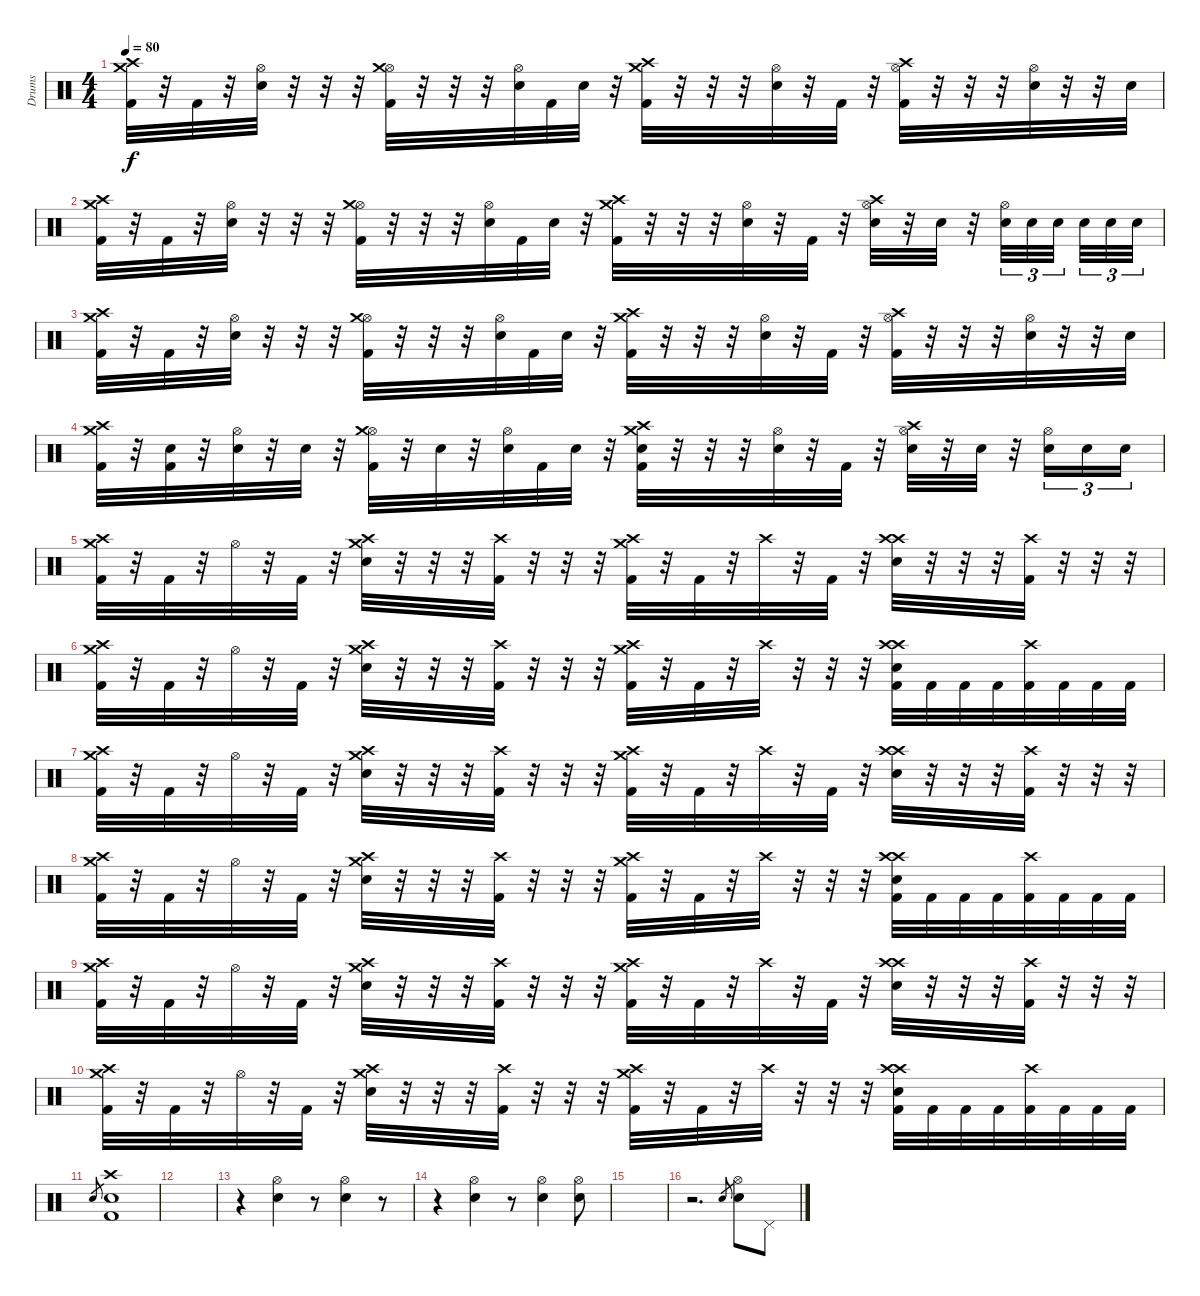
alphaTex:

\track ("Drums" "Drums") {instrument percussion}
\staff {score}
\articulation defaults
\ts (4 4)
\tempo 80
\clef neutral
\ks c
("Crash high (hit)" "Crash medium (hit)" "Kick (hit) 2").32{dy f volume 15} r.32 "Kick (hit) 2".32 r.32 ("Hi-Hat (open)" "Electric Snare (hit)").32 r.32 r.32 r.32 ("Hi-Hat (open)" "Crash medium (hit)" "Kick (hit) 2").32 r.32 r.32 r.32 ("Hi-Hat (open)" "Electric Snare (hit)").32 "Kick (hit) 2".32 "Electric Snare (hit)".32 r.32 ("Crash high (hit)" "Crash medium (hit)" "Kick (hit) 2").32 r.32 r.32 r.32 ("Hi-Hat (open)" "Electric Snare (hit)").32 r.32 "Kick (hit) 2".32 r.32 ("Crash high (hit)" "Hi-Hat (open)" "Kick (hit) 2").32 r.32 r.32 r.32 ("Hi-Hat (open)" "Electric Snare (hit)").32 r.32 r.32 "Electric Snare (hit)".32 |
("Crash high (hit)" "Crash medium (hit)" "Kick (hit) 2").32{volume 15} r.32 "Kick (hit) 2".32 r.32 ("Hi-Hat (open)" "Electric Snare (hit)").32 r.32 r.32 r.32 ("Hi-Hat (open)" "Crash medium (hit)" "Kick (hit) 2").32 r.32 r.32 r.32 ("Hi-Hat (open)" "Electric Snare (hit)").32 "Kick (hit) 2".32 "Electric Snare (hit)".32 r.32 ("Crash high (hit)" "Crash medium (hit)" "Kick (hit) 2").32 r.32 r.32 r.32 ("Hi-Hat (open)" "Electric Snare (hit)").32 r.32 "Kick (hit) 2".32 r.32 ("Crash high (hit)" "Hi-Hat (open)" "Electric Snare (hit)").32 r.32 "Electric Snare (hit)".32 r.32 ("Hi-Hat (open)" "Electric Snare (hit)").32{tu (3 2)} "Electric Snare (hit)".32{tu (3 2)} "Electric Snare (hit)".32{tu (3 2)} "Electric Snare (hit)".32{tu (3 2)} "Electric Snare (hit)".32{tu (3 2)} "Electric Snare (hit)".32{tu (3 2)} |
("Crash high (hit)" "Crash medium (hit)" "Kick (hit) 2").32{volume 15} r.32 "Kick (hit) 2".32 r.32 ("Hi-Hat (open)" "Electric Snare (hit)").32 r.32 r.32 r.32 ("Hi-Hat (open)" "Crash medium (hit)" "Kick (hit) 2").32 r.32 r.32 r.32 ("Hi-Hat (open)" "Electric Snare (hit)").32 "Kick (hit) 2".32 "Electric Snare (hit)".32 r.32 ("Crash high (hit)" "Crash medium (hit)" "Kick (hit) 2").32 r.32 r.32 r.32 ("Hi-Hat (open)" "Electric Snare (hit)").32 r.32 "Kick (hit) 2".32 r.32 ("Crash high (hit)" "Hi-Hat (open)" "Kick (hit) 2").32 r.32 r.32 r.32 ("Hi-Hat (open)" "Electric Snare (hit)").32 r.32 r.32 "Electric Snare (hit)".32 |
("Crash high (hit)" "Crash medium (hit)" "Kick (hit) 2").32{volume 15} r.32 ("Electric Snare (hit)" "Kick (hit) 2").32 r.32 ("Hi-Hat (open)" "Electric Snare (hit)").32 r.32 "Electric Snare (hit)".32 r.32 ("Hi-Hat (open)" "Crash medium (hit)" "Kick (hit) 2").32 r.32 "Electric Snare (hit)".32 r.32 ("Hi-Hat (open)" "Electric Snare (hit)").32 "Kick (hit) 2".32 "Electric Snare (hit)".32 r.32 ("Crash high (hit)" "Crash medium (hit)" "Electric Snare (hit)" "Kick (hit) 2").32 r.32 r.32 r.32 ("Hi-Hat (open)" "Electric Snare (hit)").32 r.32 "Kick (hit) 2".32 r.32 ("Crash high (hit)" "Hi-Hat (open)" "Electric Snare (hit)").32 r.32 "Electric Snare (hit)".32 r.32 ("Hi-Hat (open)" "Electric Snare (hit)").16{tu (3 2)} "Electric Snare (hit)".16{tu (3 2)} "Electric Snare (hit)".16{tu (3 2)} |
("Crash high (hit)" "Crash medium (hit)" "Kick (hit) 2").32{volume 15} r.32 "Kick (hit) 2".32 r.32 "Hi-Hat (open)".32 r.32 "Kick (hit) 2".32 r.32 ("Crash high (hit)" "Crash medium (hit)" "Electric Snare (hit)").32 r.32 r.32 r.32 ("Crash high (hit)" "Kick (hit) 2").32 r.32 r.32 r.32 ("Crash high (hit)" "Crash medium (hit)" "Kick (hit) 2").32 r.32 "Kick (hit) 2".32 r.32 "Crash high (hit)".32 r.32 "Kick (hit) 2".32 r.32 ("Crash high (hit)" "Crash high (hit)" "Electric Snare (hit)").32 r.32 r.32 r.32 ("Crash high (hit)" "Kick (hit) 2").32 r.32 r.32 r.32 |
("Crash high (hit)" "Crash medium (hit)" "Kick (hit) 2").32{volume 15} r.32 "Kick (hit) 2".32 r.32 "Hi-Hat (open)".32 r.32 "Kick (hit) 2".32 r.32 ("Crash high (hit)" "Crash medium (hit)" "Electric Snare (hit)").32 r.32 r.32 r.32 ("Crash high (hit)" "Kick (hit) 2").32 r.32 r.32 r.32 ("Crash high (hit)" "Crash medium (hit)" "Kick (hit) 2").32 r.32 "Kick (hit) 2".32 r.32 "Crash high (hit)".32 r.32 r.32 r.32 ("Crash high (hit)" "Crash high (hit)" "Electric Snare (hit)" "Kick (hit) 2").32 "Kick (hit) 2".32 "Kick (hit) 2".32 "Kick (hit) 2".32 ("Crash high (hit)" "Kick (hit) 2").32 "Kick (hit) 2".32 "Kick (hit) 2".32 "Kick (hit) 2".32 |
("Crash high (hit)" "Crash medium (hit)" "Kick (hit) 2").32{volume 15} r.32 "Kick (hit) 2".32 r.32 "Hi-Hat (open)".32 r.32 "Kick (hit) 2".32 r.32 ("Crash high (hit)" "Crash medium (hit)" "Electric Snare (hit)").32 r.32 r.32 r.32 ("Crash high (hit)" "Kick (hit) 2").32 r.32 r.32 r.32 ("Crash high (hit)" "Crash medium (hit)" "Kick (hit) 2").32 r.32 "Kick (hit) 2".32 r.32 "Crash high (hit)".32 r.32 "Kick (hit) 2".32 r.32 ("Crash high (hit)" "Crash high (hit)" "Electric Snare (hit)").32 r.32 r.32 r.32 ("Crash high (hit)" "Kick (hit) 2").32 r.32 r.32 r.32 |
("Crash high (hit)" "Crash medium (hit)" "Kick (hit) 2").32{volume 15} r.32 "Kick (hit) 2".32 r.32 "Hi-Hat (open)".32 r.32 "Kick (hit) 2".32 r.32 ("Crash high (hit)" "Crash medium (hit)" "Electric Snare (hit)").32 r.32 r.32 r.32 ("Crash high (hit)" "Kick (hit) 2").32 r.32 r.32 r.32 ("Crash high (hit)" "Crash medium (hit)" "Kick (hit) 2").32 r.32 "Kick (hit) 2".32 r.32 "Crash high (hit)".32 r.32 r.32 r.32 ("Crash high (hit)" "Crash high (hit)" "Electric Snare (hit)" "Kick (hit) 2").32 "Kick (hit) 2".32 "Kick (hit) 2".32 "Kick (hit) 2".32 ("Crash high (hit)" "Kick (hit) 2").32 "Kick (hit) 2".32 "Kick (hit) 2".32 "Kick (hit) 2".32 |
("Crash high (hit)" "Crash medium (hit)" "Kick (hit) 2").32{volume 15} r.32 "Kick (hit) 2".32 r.32 "Hi-Hat (open)".32 r.32 "Kick (hit) 2".32 r.32 ("Crash high (hit)" "Crash medium (hit)" "Electric Snare (hit)").32 r.32 r.32 r.32 ("Crash high (hit)" "Kick (hit) 2").32 r.32 r.32 r.32 ("Crash high (hit)" "Crash medium (hit)" "Kick (hit) 2").32 r.32 "Kick (hit) 2".32 r.32 "Crash high (hit)".32 r.32 "Kick (hit) 2".32 r.32 ("Crash high (hit)" "Crash high (hit)" "Electric Snare (hit)").32 r.32 r.32 r.32 ("Crash high (hit)" "Kick (hit) 2").32 r.32 r.32 r.32 |
("Crash high (hit)" "Crash medium (hit)" "Kick (hit) 2").32{volume 15} r.32 "Kick (hit) 2".32 r.32 "Hi-Hat (open)".32 r.32 "Kick (hit) 2".32 r.32 ("Crash high (hit)" "Crash medium (hit)" "Electric Snare (hit)").32 r.32 r.32 r.32 ("Crash high (hit)" "Kick (hit) 2").32 r.32 r.32 r.32 ("Crash high (hit)" "Crash medium (hit)" "Kick (hit) 2").32 r.32 "Kick (hit) 2".32 r.32 "Crash high (hit)".32 r.32 r.32 r.32 ("Crash high (hit)" "Crash high (hit)" "Electric Snare (hit)" "Kick (hit) 2").32 "Kick (hit) 2".32 "Kick (hit) 2".32 "Kick (hit) 2".32 ("Crash high (hit)" "Kick (hit) 2").32 "Kick (hit) 2".32 "Kick (hit) 2".32 "Kick (hit) 2".32 |
"Electric Snare (hit)".8{gr} ("Crash high (hit)" "Electric Snare (hit)" "Kick (hit) 2").1 |
|
r.4 ("Hi-Hat (open)" "Electric Snare (hit)").4 r.8 ("Hi-Hat (open)" "Electric Snare (hit)").4 r.8 |
r.4 ("Hi-Hat (open)" "Electric Snare (hit)").4 r.8 ("Hi-Hat (open)" "Electric Snare (hit)").4 ("Hi-Hat (open)" "Electric Snare (hit)").8 |
|
r.2{d} "Electric Snare (hit)".8{gr} ("Hi-Hat (open)" "Electric Snare (hit)").8 "Pedal Hi-Hat (hit)".8
